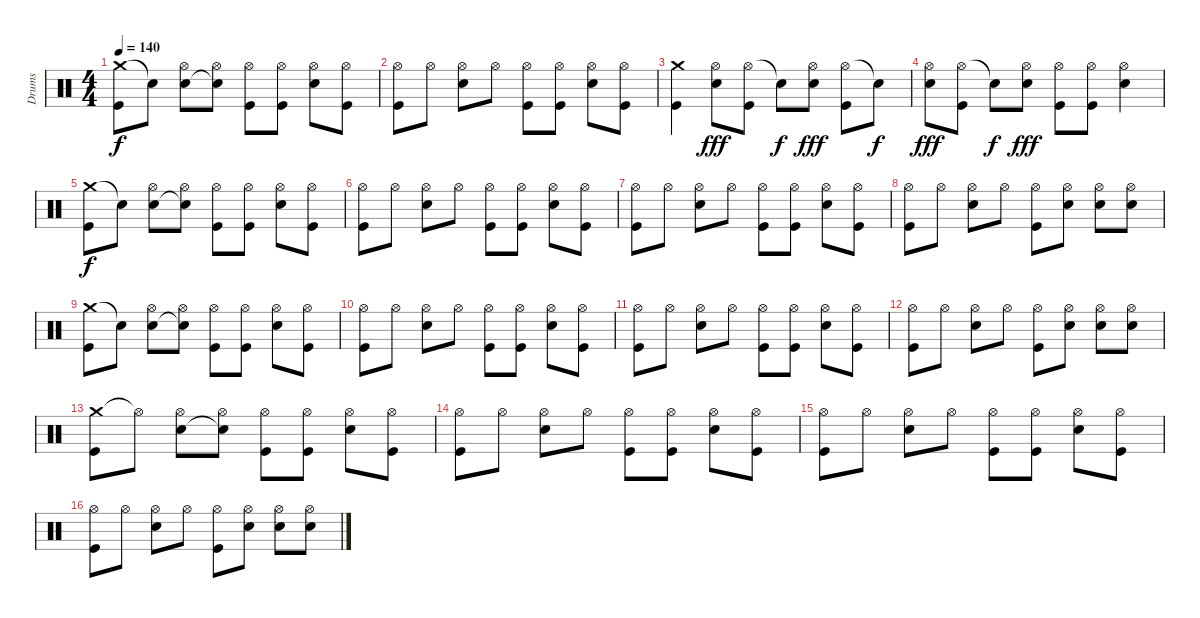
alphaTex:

\track ("Drums" "Drums") {instrument percussion}
\staff {score}
\articulation defaults
\ts (4 4)
\tempo 140
\clef neutral
\ks c
("Crash medium (hit)" "Kick (hit)").8{dy f} "Snare (hit)"{t}.8 ("Hi-Hat (open)" "Snare (hit) 2").8 ("Hi-Hat (open)" "Snare (hit)"{t}).8 ("Hi-Hat (open)" "Kick (hit)").8 ("Hi-Hat (open)" "Kick (hit)").8 ("Hi-Hat (open)" "Snare (hit) 2").8 ("Hi-Hat (open)" "Kick (hit)").8 |
("Hi-Hat (open)" "Kick (hit)").8 "Hi-Hat (open)".8 ("Hi-Hat (open)" "Snare (hit) 2").8 "Hi-Hat (open)".8 ("Hi-Hat (open)" "Kick (hit)").8 ("Hi-Hat (open)" "Kick (hit)").8 ("Hi-Hat (open)" "Snare (hit) 2").8 ("Hi-Hat (open)" "Kick (hit)").8 |
("Crash medium (hit)" "Kick (hit)").4 ("Hi-Hat (open)" "Snare (hit) 2").8{dy fff} ("Hi-Hat (open)" "Kick (hit)").8 "Snare (hit)"{t}.8{dy f} ("Hi-Hat (open)" "Snare (hit) 2").8{dy fff} ("Hi-Hat (open)" "Kick (hit)").8 "Snare (hit)"{t}.8{dy f} |
("Hi-Hat (open)" "Snare (hit) 2").8{dy fff} ("Hi-Hat (open)" "Kick (hit)").8 "Snare (hit)"{t}.8{dy f} ("Hi-Hat (open)" "Snare (hit) 2").8{dy fff} ("Hi-Hat (open)" "Kick (hit)").8 ("Hi-Hat (open)" "Kick (hit)").8 ("Hi-Hat (open)" "Snare (hit) 2").4 |
("Crash medium (hit)" "Kick (hit)").8{dy f} "Snare (hit)"{t}.8 ("Hi-Hat (open)" "Snare (hit) 2").8 ("Hi-Hat (open)" "Snare (hit)"{t}).8 ("Hi-Hat (open)" "Kick (hit)").8 ("Hi-Hat (open)" "Kick (hit)").8 ("Hi-Hat (open)" "Snare (hit) 2").8 ("Hi-Hat (open)" "Kick (hit)").8 |
("Hi-Hat (open)" "Kick (hit)").8 "Hi-Hat (open)".8 ("Hi-Hat (open)" "Snare (hit) 2").8 "Hi-Hat (open)".8 ("Hi-Hat (open)" "Kick (hit)").8 ("Hi-Hat (open)" "Kick (hit)").8 ("Hi-Hat (open)" "Snare (hit) 2").8 ("Hi-Hat (open)" "Kick (hit)").8 |
("Hi-Hat (open)" "Kick (hit)").8 "Hi-Hat (open)".8 ("Hi-Hat (open)" "Snare (hit) 2").8 "Hi-Hat (open)".8 ("Hi-Hat (open)" "Kick (hit)").8 ("Hi-Hat (open)" "Kick (hit)").8 ("Hi-Hat (open)" "Snare (hit) 2").8 ("Hi-Hat (open)" "Kick (hit)").8 |
("Hi-Hat (open)" "Kick (hit)").8 "Hi-Hat (open)".8 ("Hi-Hat (open)" "Snare (hit) 2").8 "Hi-Hat (open)".8 ("Hi-Hat (open)" "Kick (hit)").8 ("Hi-Hat (open)" "Snare (hit) 2").8 ("Hi-Hat (open)" "Snare (hit) 2").8 ("Hi-Hat (open)" "Snare (hit) 2").8 |
("Crash medium (hit)" "Kick (hit)").8{volume 8} "Snare (hit)"{t}.8 ("Hi-Hat (open)" "Snare (hit) 2").8 ("Hi-Hat (open)" "Snare (hit)"{t}).8 ("Hi-Hat (open)" "Kick (hit)").8 ("Hi-Hat (open)" "Kick (hit)").8 ("Hi-Hat (open)" "Snare (hit) 2").8 ("Hi-Hat (open)" "Kick (hit)").8 |
("Hi-Hat (open)" "Kick (hit)").8 "Hi-Hat (open)".8 ("Hi-Hat (open)" "Snare (hit) 2").8 "Hi-Hat (open)".8 ("Hi-Hat (open)" "Kick (hit)").8 ("Hi-Hat (open)" "Kick (hit)").8 ("Hi-Hat (open)" "Snare (hit) 2").8 ("Hi-Hat (open)" "Kick (hit)").8 |
("Hi-Hat (open)" "Kick (hit)").8{volume 8} "Hi-Hat (open)".8 ("Hi-Hat (open)" "Snare (hit) 2").8 "Hi-Hat (open)".8 ("Hi-Hat (open)" "Kick (hit)").8 ("Hi-Hat (open)" "Kick (hit)").8 ("Hi-Hat (open)" "Snare (hit) 2").8 ("Hi-Hat (open)" "Kick (hit)").8 |
("Hi-Hat (open)" "Kick (hit)").8 "Hi-Hat (open)".8 ("Hi-Hat (open)" "Snare (hit) 2").8 "Hi-Hat (open)".8 ("Hi-Hat (open)" "Kick (hit)").8 ("Hi-Hat (open)" "Snare (hit) 2").8 ("Hi-Hat (open)" "Snare (hit) 2").8 ("Hi-Hat (open)" "Snare (hit) 2").8 |
("Crash medium (hit)" "Kick (hit)").8{volume 2} "Hi-Hat (open)"{t}.8 ("Hi-Hat (open)" "Snare (hit) 2").8 ("Hi-Hat (open)" "Snare (hit)"{t}).8 ("Hi-Hat (open)" "Kick (hit)").8 ("Hi-Hat (open)" "Kick (hit)").8 ("Hi-Hat (open)" "Snare (hit) 2").8 ("Hi-Hat (open)" "Kick (hit)").8 |
("Hi-Hat (open)" "Kick (hit)").8 "Hi-Hat (open)".8 ("Hi-Hat (open)" "Snare (hit) 2").8 "Hi-Hat (open)".8 ("Hi-Hat (open)" "Kick (hit)").8 ("Hi-Hat (open)" "Kick (hit)").8 ("Hi-Hat (open)" "Snare (hit) 2").8 ("Hi-Hat (open)" "Kick (hit)").8 |
("Hi-Hat (open)" "Kick (hit)").8{volume 0} "Hi-Hat (open)".8 ("Hi-Hat (open)" "Snare (hit) 2").8 "Hi-Hat (open)".8 ("Hi-Hat (open)" "Kick (hit)").8 ("Hi-Hat (open)" "Kick (hit)").8 ("Hi-Hat (open)" "Snare (hit) 2").8 ("Hi-Hat (open)" "Kick (hit)").8 |
("Hi-Hat (open)" "Kick (hit)").8 "Hi-Hat (open)".8 ("Hi-Hat (open)" "Snare (hit) 2").8 "Hi-Hat (open)".8 ("Hi-Hat (open)" "Kick (hit)").8 ("Hi-Hat (open)" "Snare (hit) 2").8 ("Hi-Hat (open)" "Snare (hit) 2").8 ("Hi-Hat (open)" "Snare (hit) 2").8
